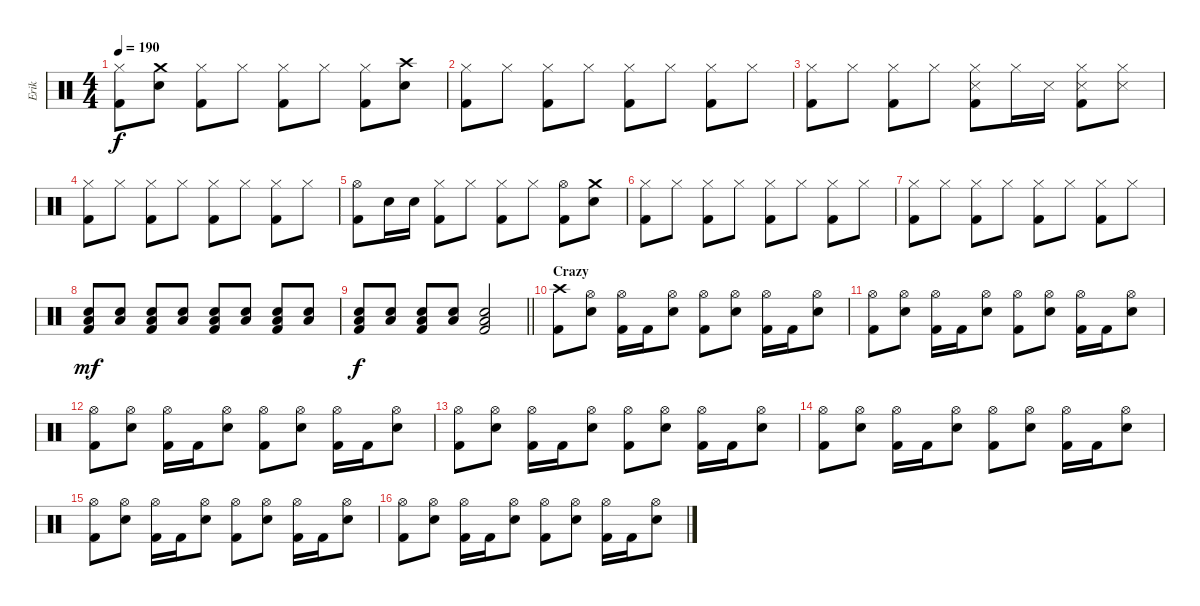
\track ("Erik" "Erik") {instrument percussion}
\staff {score}
\articulation defaults
\ts (4 4)
\tempo 190
\clef neutral
\ks c
("Hi-Hat (closed)" "Kick (hit) 2").8{dy f} ("Crash medium (hit)" "Snare (hit) 2").8 ("Hi-Hat (closed)" "Kick (hit) 2").8 "Hi-Hat (closed)".8 ("Hi-Hat (closed)" "Kick (hit) 2").8 "Hi-Hat (closed)".8 ("Hi-Hat (closed)" "Kick (hit) 2").8 ("Crash high (hit)" "Snare (hit) 2").8 |
("Hi-Hat (closed)" "Kick (hit) 2").8 "Hi-Hat (closed)".8 ("Hi-Hat (closed)" "Kick (hit) 2").8 "Hi-Hat (closed)".8 ("Hi-Hat (closed)" "Kick (hit) 2").8 "Hi-Hat (closed)".8 ("Hi-Hat (closed)" "Kick (hit) 2").8 "Hi-Hat (closed)".8 |
("Hi-Hat (closed)" "Kick (hit) 2").8 "Hi-Hat (closed)".8 ("Hi-Hat (closed)" "Kick (hit) 2").8 "Hi-Hat (closed)".8 ("Hi-Hat (closed)" "Snare (side stick) 3" "Kick (hit) 2").8 "Hi-Hat (closed)".16 "Snare (side stick) 3".16 ("Hi-Hat (closed)" "Snare (side stick) 3" "Kick (hit) 2").8 ("Hi-Hat (closed)" "Snare (side stick) 3").8 |
("Hi-Hat (closed)" "Kick (hit) 2").8 "Hi-Hat (closed)".8 ("Hi-Hat (closed)" "Kick (hit) 2").8 "Hi-Hat (closed)".8 ("Hi-Hat (closed)" "Kick (hit) 2").8 "Hi-Hat (closed)".8 ("Hi-Hat (closed)" "Kick (hit) 2").8 "Hi-Hat (closed)".8 |
("Hi-Hat (open)" "Kick (hit) 2").8 "Snare (hit) 2".16 "Snare (hit) 2".16 ("Hi-Hat (closed)" "Kick (hit) 2").8 "Hi-Hat (closed)".8 ("Hi-Hat (closed)" "Kick (hit) 2").8 "Hi-Hat (closed)".8 ("Hi-Hat (open)" "Kick (hit) 2").8 ("Crash medium (hit)" "Snare (hit) 2").8 |
("Hi-Hat (closed)" "Kick (hit) 2").8 "Hi-Hat (closed)".8 ("Hi-Hat (closed)" "Kick (hit) 2").8 "Hi-Hat (closed)".8 ("Hi-Hat (closed)" "Kick (hit) 2").8 "Hi-Hat (closed)".8 ("Hi-Hat (closed)" "Kick (hit) 2").8 "Hi-Hat (closed)".8 |
("Hi-Hat (closed)" "Kick (hit) 2").8 "Hi-Hat (closed)".8 ("Hi-Hat (closed)" "Kick (hit) 2").8 "Hi-Hat (closed)".8 ("Hi-Hat (closed)" "Kick (hit) 2").8 "Hi-Hat (closed)".8 ("Hi-Hat (closed)" "Kick (hit) 2").8 "Hi-Hat (closed)".8 |
("Snare (hit) 2" "Low Floor Tom (hit)" "Kick (hit) 2").8{dy mf} ("Snare (hit) 2" "Low Floor Tom (hit)").8 ("Snare (hit) 2" "Low Floor Tom (hit)" "Kick (hit) 2").8 ("Snare (hit) 2" "Low Floor Tom (hit)").8 ("Snare (hit) 2" "Low Floor Tom (hit)" "Kick (hit) 2").8 ("Snare (hit) 2" "Low Floor Tom (hit)").8 ("Snare (hit) 2" "Low Floor Tom (hit)" "Kick (hit) 2").8 ("Snare (hit) 2" "Low Floor Tom (hit)").8 |
\barLineRight lightlight
("Snare (hit) 2" "Low Floor Tom (hit)" "Kick (hit) 2").8{dy f} ("Snare (hit) 2" "Low Floor Tom (hit)").8 ("Snare (hit) 2" "Low Floor Tom (hit)" "Kick (hit) 2").8 ("Snare (hit) 2" "Low Floor Tom (hit)").8 ("Snare (hit) 2" "Low Floor Tom (hit)" "Kick (hit) 2").2 |
\section ("" "Crazy")
("Crash high (hit)" "Kick (hit) 2").8 ("Hi-Hat (open)" "Snare (hit) 2").8 ("Hi-Hat (open)" "Kick (hit) 2").16 "Kick (hit) 2".16 ("Hi-Hat (open)" "Snare (hit) 2").8 ("Hi-Hat (open)" "Kick (hit) 2").8 ("Hi-Hat (open)" "Snare (hit) 2").8 ("Hi-Hat (open)" "Kick (hit) 2").16 "Kick (hit) 2".16 ("Hi-Hat (open)" "Snare (hit) 2").8 |
("Hi-Hat (open)" "Kick (hit) 2").8 ("Hi-Hat (open)" "Snare (hit) 2").8 ("Hi-Hat (open)" "Kick (hit) 2").16 "Kick (hit) 2".16 ("Hi-Hat (open)" "Snare (hit) 2").8 ("Hi-Hat (open)" "Kick (hit) 2").8 ("Hi-Hat (open)" "Snare (hit) 2").8 ("Hi-Hat (open)" "Kick (hit) 2").16 "Kick (hit) 2".16 ("Hi-Hat (open)" "Snare (hit) 2").8 |
("Hi-Hat (open)" "Kick (hit) 2").8 ("Hi-Hat (open)" "Snare (hit) 2").8 ("Hi-Hat (open)" "Kick (hit) 2").16 "Kick (hit) 2".16 ("Hi-Hat (open)" "Snare (hit) 2").8 ("Hi-Hat (open)" "Kick (hit) 2").8 ("Hi-Hat (open)" "Snare (hit) 2").8 ("Hi-Hat (open)" "Kick (hit) 2").16 "Kick (hit) 2".16 ("Hi-Hat (open)" "Snare (hit) 2").8 |
("Hi-Hat (open)" "Kick (hit) 2").8 ("Hi-Hat (open)" "Snare (hit) 2").8 ("Hi-Hat (open)" "Kick (hit) 2").16 "Kick (hit) 2".16 ("Hi-Hat (open)" "Snare (hit) 2").8 ("Hi-Hat (open)" "Kick (hit) 2").8 ("Hi-Hat (open)" "Snare (hit) 2").8 ("Hi-Hat (open)" "Kick (hit) 2").16 "Kick (hit) 2".16 ("Hi-Hat (open)" "Snare (hit) 2").8 |
("Hi-Hat (open)" "Kick (hit) 2").8 ("Hi-Hat (open)" "Snare (hit) 2").8 ("Hi-Hat (open)" "Kick (hit) 2").16 "Kick (hit) 2".16 ("Hi-Hat (open)" "Snare (hit) 2").8 ("Hi-Hat (open)" "Kick (hit) 2").8 ("Hi-Hat (open)" "Snare (hit) 2").8 ("Hi-Hat (open)" "Kick (hit) 2").16 "Kick (hit) 2".16 ("Hi-Hat (open)" "Snare (hit) 2").8 |
("Hi-Hat (open)" "Kick (hit) 2").8 ("Hi-Hat (open)" "Snare (hit) 2").8 ("Hi-Hat (open)" "Kick (hit) 2").16 "Kick (hit) 2".16 ("Hi-Hat (open)" "Snare (hit) 2").8 ("Hi-Hat (open)" "Kick (hit) 2").8 ("Hi-Hat (open)" "Snare (hit) 2").8 ("Hi-Hat (open)" "Kick (hit) 2").16 "Kick (hit) 2".16 ("Hi-Hat (open)" "Snare (hit) 2").8 |
("Hi-Hat (open)" "Kick (hit) 2").8 ("Hi-Hat (open)" "Snare (hit) 2").8 ("Hi-Hat (open)" "Kick (hit) 2").16 "Kick (hit) 2".16 ("Hi-Hat (open)" "Snare (hit) 2").8 ("Hi-Hat (open)" "Kick (hit) 2").8 ("Hi-Hat (open)" "Snare (hit) 2").8 ("Hi-Hat (open)" "Kick (hit) 2").16 "Kick (hit) 2".16 ("Hi-Hat (open)" "Snare (hit) 2").8
